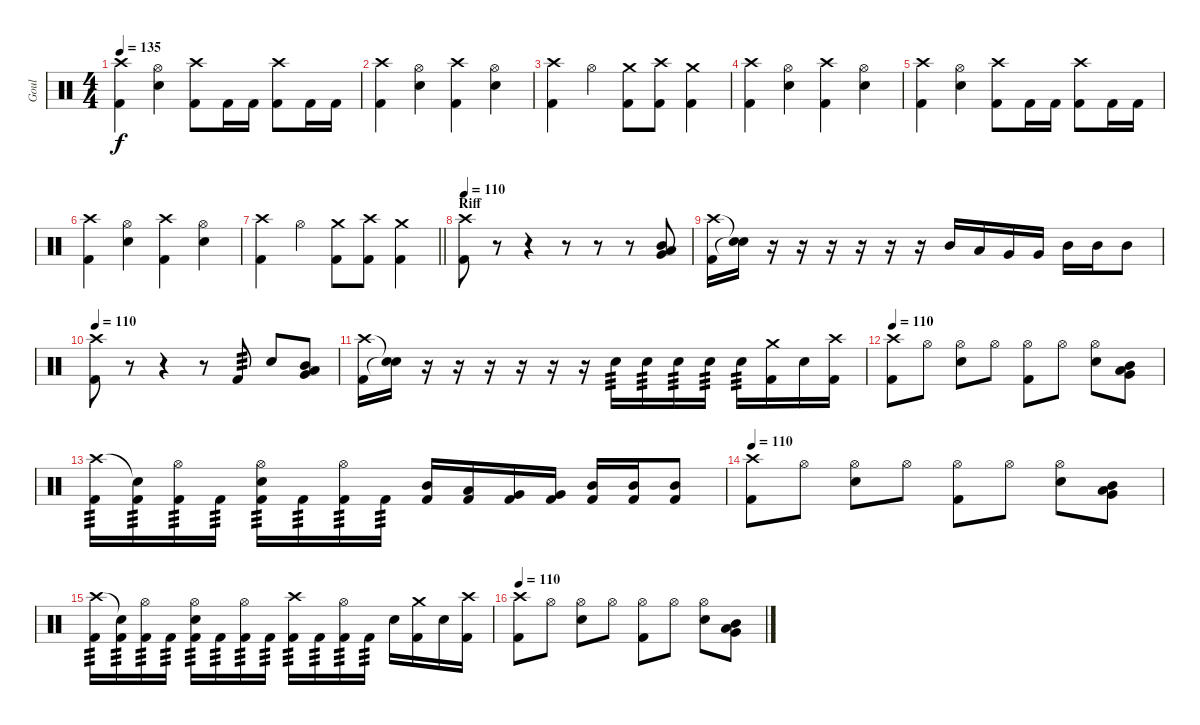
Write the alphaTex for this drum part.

\track ("Goul" "Goul") {instrument percussion}
\staff {score}
\articulation defaults
\ts (4 4)
\tempo 135
\clef neutral
\ks c
("Crash high (hit)" "Kick (hit) 2").4{dy f} ("Hi-Hat (open)" "Electric Snare (hit)").4 ("Crash high (hit)" "Kick (hit) 2").8 "Kick (hit) 2".16 "Kick (hit) 2".16 ("Crash high (hit)" "Kick (hit) 2").8 "Kick (hit) 2".16 "Kick (hit) 2".16 |
("Crash high (hit)" "Kick (hit) 2").4 ("Hi-Hat (open)" "Electric Snare (hit)").4 ("Crash high (hit)" "Kick (hit) 2").4 ("Hi-Hat (open)" "Electric Snare (hit)").4 |
("Crash high (hit)" "Kick (hit) 2").4 "Hi-Hat (open)".4 ("Crash medium (hit)" "Kick (hit) 2").8 ("Crash high (hit)" "Kick (hit) 2").8 ("Crash medium (hit)" "Kick (hit) 2").4 |
("Crash high (hit)" "Kick (hit) 2").4 ("Hi-Hat (open)" "Electric Snare (hit)").4 ("Crash high (hit)" "Kick (hit) 2").4 ("Hi-Hat (open)" "Electric Snare (hit)").4 |
("Crash high (hit)" "Kick (hit) 2").4 ("Hi-Hat (open)" "Electric Snare (hit)").4 ("Crash high (hit)" "Kick (hit) 2").8 "Kick (hit) 2".16 "Kick (hit) 2".16 ("Crash high (hit)" "Kick (hit) 2").8 "Kick (hit) 2".16 "Kick (hit) 2".16 |
("Crash high (hit)" "Kick (hit) 2").4 ("Hi-Hat (open)" "Electric Snare (hit)").4 ("Crash high (hit)" "Kick (hit) 2").4 ("Hi-Hat (open)" "Electric Snare (hit)").4 |
\barLineRight lightlight
("Crash high (hit)" "Kick (hit) 2").4 "Hi-Hat (open)".4 ("Crash medium (hit)" "Kick (hit) 2").8 ("Crash high (hit)" "Kick (hit) 2").8 ("Crash medium (hit)" "Kick (hit) 2").4 |
\section ("" "Riff")
\tempo 110
("Crash high (hit)" "Kick (hit) 2").8 r.8 r.4 r.8 r.8 r.8 ("Mid Tom (hit)" "Low Tom (hit)" "Very Low Tom (hit)").8 |
("Crash high (hit)" "Kick (hit) 2").16 ("Snare (hit)"{t} "Snare (hit)"{t}).16 r.16 r.16 r.16 r.16 r.16 r.16 "Mid Tom (hit)".16 "Low Tom (hit)".16 "Very Low Tom (hit)".16 "Very Low Tom (hit)".16 "Mid Tom (hit)".16 "Mid Tom (hit)".16 "Mid Tom (hit)".8 |
\tempo 110
("Crash high (hit)" "Kick (hit) 2").8 r.8 r.4 r.8 "Kick (hit) 2".8{tp 3} "Electric Snare (hit)".8 ("Mid Tom (hit)" "Low Tom (hit)" "Very Low Tom (hit)").8 |
("Crash high (hit)" "Kick (hit) 2").16 ("Snare (hit)"{t} "Snare (hit)"{t}).16 r.16 r.16 r.16 r.16 r.16 r.16 "Electric Snare (hit)".16{tp 3} "Electric Snare (hit)".16{tp 3} "Electric Snare (hit)".16{tp 3} "Electric Snare (hit)".16{tp 3} "Electric Snare (hit)".16{tp 3} ("Crash medium (hit)" "Kick (hit) 2").16 "Electric Snare (hit)".16 ("Crash high (hit)" "Kick (hit) 2").16 |
\tempo 110
("Crash high (hit)" "Kick (hit) 2").8 "Hi-Hat (open)".8 ("Hi-Hat (open)" "Electric Snare (hit)").8 "Hi-Hat (open)".8 ("Hi-Hat (open)" "Kick (hit) 2").8 "Hi-Hat (open)".8 ("Hi-Hat (open)" "Electric Snare (hit)").8 ("Mid Tom (hit)" "Low Tom (hit)" "Very Low Tom (hit)").8 |
("Crash high (hit)" "Kick (hit) 2").16{tp 3} ("Snare (hit)"{t} "Kick (hit) 2").16{tp 3} ("Hi-Hat (open)" "Kick (hit) 2").16{tp 3} "Kick (hit) 2".16{tp 3} ("Hi-Hat (open)" "Electric Snare (hit)" "Kick (hit) 2").16{tp 3} "Kick (hit) 2".16{tp 3} ("Hi-Hat (open)" "Kick (hit) 2").16{tp 3} "Kick (hit) 2".16{tp 3} ("Mid Tom (hit)" "Kick (hit) 2").16 ("Low Tom (hit)" "Kick (hit) 2").16 ("Very Low Tom (hit)" "Kick (hit) 2").16 ("Very Low Tom (hit)" "Kick (hit) 2").16 ("Mid Tom (hit)" "Kick (hit) 2").16 ("Mid Tom (hit)" "Kick (hit) 2").16 ("Mid Tom (hit)" "Kick (hit) 2").8 |
\tempo 110
("Crash high (hit)" "Kick (hit) 2").8 "Hi-Hat (open)".8 ("Hi-Hat (open)" "Electric Snare (hit)").8 "Hi-Hat (open)".8 ("Hi-Hat (open)" "Kick (hit) 2").8 "Hi-Hat (open)".8 ("Hi-Hat (open)" "Electric Snare (hit)").8 ("Mid Tom (hit)" "Low Tom (hit)" "Very Low Tom (hit)").8 |
("Crash high (hit)" "Kick (hit) 2").16{tp 3} ("Snare (hit)"{t} "Kick (hit) 2").16{tp 3} ("Hi-Hat (open)" "Kick (hit) 2").16{tp 3} "Kick (hit) 2".16{tp 3} ("Hi-Hat (open)" "Electric Snare (hit)" "Kick (hit) 2").16{tp 3} "Kick (hit) 2".16{tp 3} ("Hi-Hat (open)" "Kick (hit) 2").16{tp 3} "Kick (hit) 2".16{tp 3} ("Crash high (hit)" "Kick (hit) 2").16{tp 3} "Kick (hit) 2".16{tp 3} ("Hi-Hat (open)" "Kick (hit) 2").16{tp 3} "Kick (hit) 2".16{tp 3} "Electric Snare (hit)".16 ("Crash medium (hit)" "Kick (hit) 2").16 "Electric Snare (hit)".16 ("Crash high (hit)" "Kick (hit) 2").16 |
\tempo 110
("Crash high (hit)" "Kick (hit) 2").8 "Hi-Hat (open)".8 ("Hi-Hat (open)" "Electric Snare (hit)").8 "Hi-Hat (open)".8 ("Hi-Hat (open)" "Kick (hit) 2").8 "Hi-Hat (open)".8 ("Hi-Hat (open)" "Electric Snare (hit)").8 ("Mid Tom (hit)" "Low Tom (hit)" "Very Low Tom (hit)").8
